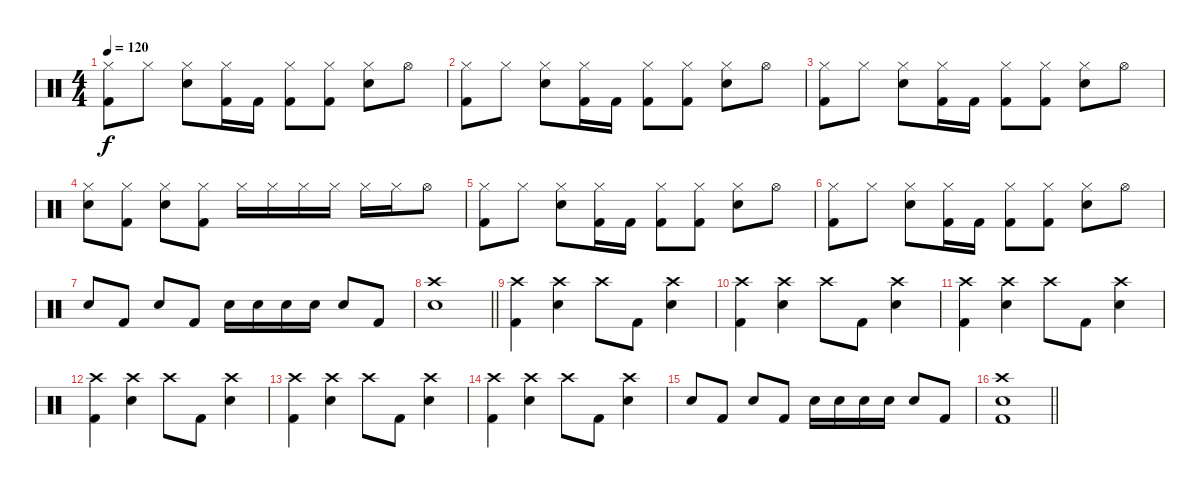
\track "" {mute instrument percussion}
\staff {score}
\articulation defaults
\ts (4 4)
\tempo 120
\clef neutral
\ks c
("Kick (hit) 2" "Hi-Hat (closed)").8{dy f} "Hi-Hat (closed)".8 ("Snare (hit) 2" "Hi-Hat (closed)").8 ("Kick (hit) 2" "Hi-Hat (closed)").16 "Kick (hit) 2".16 ("Kick (hit) 2" "Hi-Hat (closed)").8 ("Kick (hit) 2" "Hi-Hat (closed)").8 ("Snare (hit) 2" "Hi-Hat (closed)").8 "Hi-Hat (open)".8 |
("Kick (hit) 2" "Hi-Hat (closed)").8 "Hi-Hat (closed)".8 ("Snare (hit) 2" "Hi-Hat (closed)").8 ("Kick (hit) 2" "Hi-Hat (closed)").16 "Kick (hit) 2".16 ("Kick (hit) 2" "Hi-Hat (closed)").8 ("Kick (hit) 2" "Hi-Hat (closed)").8 ("Snare (hit) 2" "Hi-Hat (closed)").8 "Hi-Hat (open)".8 |
("Kick (hit) 2" "Hi-Hat (closed)").8 "Hi-Hat (closed)".8 ("Snare (hit) 2" "Hi-Hat (closed)").8 ("Kick (hit) 2" "Hi-Hat (closed)").16 "Kick (hit) 2".16 ("Kick (hit) 2" "Hi-Hat (closed)").8 ("Kick (hit) 2" "Hi-Hat (closed)").8 ("Snare (hit) 2" "Hi-Hat (closed)").8 "Hi-Hat (open)".8 |
("Snare (hit) 2" "Hi-Hat (closed)").8 ("Kick (hit) 2" "Hi-Hat (closed)").8 ("Snare (hit) 2" "Hi-Hat (closed)").8 ("Kick (hit) 2" "Hi-Hat (closed)").8 "Hi-Hat (closed)".16 "Hi-Hat (closed)".16 "Hi-Hat (closed)".16 "Hi-Hat (closed)".16 "Hi-Hat (closed)".16 "Hi-Hat (closed)".16 "Hi-Hat (open)".8 |
("Kick (hit) 2" "Hi-Hat (closed)").8 "Hi-Hat (closed)".8 ("Snare (hit) 2" "Hi-Hat (closed)").8 ("Kick (hit) 2" "Hi-Hat (closed)").16 "Kick (hit) 2".16 ("Kick (hit) 2" "Hi-Hat (closed)").8 ("Kick (hit) 2" "Hi-Hat (closed)").8 ("Snare (hit) 2" "Hi-Hat (closed)").8 "Hi-Hat (open)".8 |
("Kick (hit) 2" "Hi-Hat (closed)").8 "Hi-Hat (closed)".8 ("Snare (hit) 2" "Hi-Hat (closed)").8 ("Kick (hit) 2" "Hi-Hat (closed)").16 "Kick (hit) 2".16 ("Kick (hit) 2" "Hi-Hat (closed)").8 ("Kick (hit) 2" "Hi-Hat (closed)").8 ("Snare (hit) 2" "Hi-Hat (closed)").8 "Hi-Hat (open)".8 |
"Snare (hit) 2".8 "Kick (hit) 2".8 "Snare (hit) 2".8 "Kick (hit) 2".8 "Snare (hit) 2".16 "Snare (hit) 2".16 "Snare (hit) 2".16 "Snare (hit) 2".16 "Snare (hit) 2".8 "Kick (hit) 2".8 |
\barLineRight lightlight
("Snare (hit) 2" "Crash high (hit)").1 |
("Kick (hit) 2" "Crash high (hit)").4 ("Snare (hit) 2" "Crash high (hit)").4 "Crash high (hit)".8 "Kick (hit) 2".8 ("Snare (hit) 2" "Crash high (hit)").4 |
("Kick (hit) 2" "Crash high (hit)").4 ("Snare (hit) 2" "Crash high (hit)").4 "Crash high (hit)".8 "Kick (hit) 2".8 ("Snare (hit) 2" "Crash high (hit)").4 |
("Kick (hit) 2" "Crash high (hit)").4 ("Snare (hit) 2" "Crash high (hit)").4 "Crash high (hit)".8 "Kick (hit) 2".8 ("Snare (hit) 2" "Crash high (hit)").4 |
("Kick (hit) 2" "Crash high (hit)").4 ("Snare (hit) 2" "Crash high (hit)").4 "Crash high (hit)".8 "Kick (hit) 2".8 ("Snare (hit) 2" "Crash high (hit)").4 |
("Kick (hit) 2" "Crash high (hit)").4 ("Snare (hit) 2" "Crash high (hit)").4 "Crash high (hit)".8 "Kick (hit) 2".8 ("Snare (hit) 2" "Crash high (hit)").4 |
("Kick (hit) 2" "Crash high (hit)").4 ("Snare (hit) 2" "Crash high (hit)").4 "Crash high (hit)".8 "Kick (hit) 2".8 ("Snare (hit) 2" "Crash high (hit)").4 |
"Snare (hit) 2".8 "Kick (hit) 2".8 "Snare (hit) 2".8 "Kick (hit) 2".8 "Snare (hit) 2".16 "Snare (hit) 2".16 "Snare (hit) 2".16 "Snare (hit) 2".16 "Snare (hit) 2".8 "Kick (hit) 2".8 |
\barLineRight lightlight
("Kick (hit) 2" "Snare (hit) 2" "Crash high (hit)").1
